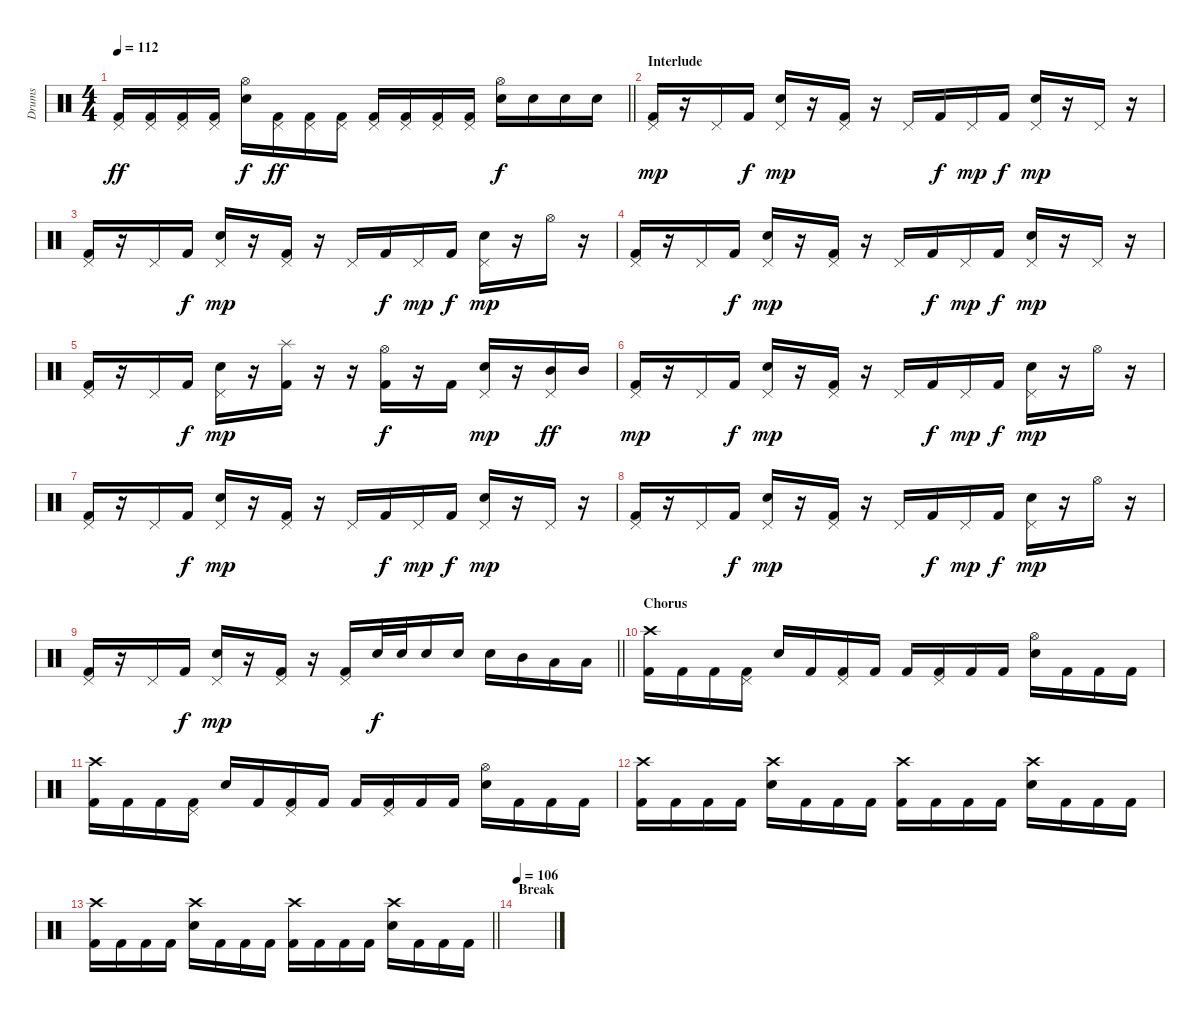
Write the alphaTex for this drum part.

\track ("Drums" "Drums") {instrument percussion}
\staff {score}
\articulation defaults
\ts (4 4)
\tempo 112
\clef neutral
\barLineRight lightlight
\ks c
("Pedal Hi-Hat (hit)" "Kick (hit) 2").16{dy ff} ("Pedal Hi-Hat (hit)" "Kick (hit) 2").16 ("Pedal Hi-Hat (hit)" "Kick (hit) 2").16 ("Pedal Hi-Hat (hit)" "Kick (hit) 2").16 ("Hi-Hat (open)" "Snare (hit) 2").16{dy f} ("Pedal Hi-Hat (hit)" "Kick (hit) 2").16{dy ff} ("Pedal Hi-Hat (hit)" "Kick (hit) 2").16 ("Pedal Hi-Hat (hit)" "Kick (hit) 2").16 ("Pedal Hi-Hat (hit)" "Kick (hit) 2").16 ("Pedal Hi-Hat (hit)" "Kick (hit) 2").16 ("Pedal Hi-Hat (hit)" "Kick (hit) 2").16 ("Pedal Hi-Hat (hit)" "Kick (hit) 2").16 ("Hi-Hat (open)" "Snare (hit) 2").16{dy f} "Snare (hit) 2".16 "Snare (hit) 2".16 "Snare (hit) 2".16 |
\section ("" "Interlude")
("Pedal Hi-Hat (hit)" "Kick (hit) 2").16{dy mp} r.16 "Pedal Hi-Hat (hit)".16 "Kick (hit) 2".16{dy f} ("Pedal Hi-Hat (hit)" "Snare (hit) 2").16{dy mp} r.16 ("Pedal Hi-Hat (hit)" "Kick (hit) 2").16 r.16 "Pedal Hi-Hat (hit)".16 "Kick (hit) 2".16{dy f} "Pedal Hi-Hat (hit)".16{dy mp} "Kick (hit) 2".16{dy f} ("Pedal Hi-Hat (hit)" "Snare (hit) 2").16{dy mp} r.16 "Pedal Hi-Hat (hit)".16 r.16 |
("Pedal Hi-Hat (hit)" "Kick (hit) 2").16 r.16 "Pedal Hi-Hat (hit)".16 "Kick (hit) 2".16{dy f} ("Pedal Hi-Hat (hit)" "Snare (hit) 2").16{dy mp} r.16 ("Pedal Hi-Hat (hit)" "Kick (hit) 2").16 r.16 "Pedal Hi-Hat (hit)".16 "Kick (hit) 2".16{dy f} "Pedal Hi-Hat (hit)".16{dy mp} "Kick (hit) 2".16{dy f} ("Pedal Hi-Hat (hit)" "Snare (hit) 2").16{dy mp} r.16 "Hi-Hat (open)".16 r.16 |
("Pedal Hi-Hat (hit)" "Kick (hit) 2").16 r.16 "Pedal Hi-Hat (hit)".16 "Kick (hit) 2".16{dy f} ("Pedal Hi-Hat (hit)" "Snare (hit) 2").16{dy mp} r.16 ("Pedal Hi-Hat (hit)" "Kick (hit) 2").16 r.16 "Pedal Hi-Hat (hit)".16 "Kick (hit) 2".16{dy f} "Pedal Hi-Hat (hit)".16{dy mp} "Kick (hit) 2".16{dy f} ("Pedal Hi-Hat (hit)" "Snare (hit) 2").16{dy mp} r.16 "Pedal Hi-Hat (hit)".16 r.16 |
("Pedal Hi-Hat (hit)" "Kick (hit) 2").16 r.16 "Pedal Hi-Hat (hit)".16 "Kick (hit) 2".16{dy f} ("Pedal Hi-Hat (hit)" "Snare (hit) 2").16{dy mp} r.16 ("Splash (hit)" "Kick (hit) 2").16 r.16 r.16 ("Hi-Hat (open)" "Kick (hit) 2").16{dy f} r.16 "Kick (hit) 2".16 ("Pedal Hi-Hat (hit)" "Snare (hit) 2").16{dy mp} r.16 ("Pedal Hi-Hat (hit)" "Mid Tom (hit)").16{dy ff} "Mid Tom (hit)".16 |
("Pedal Hi-Hat (hit)" "Kick (hit) 2").16{dy mp} r.16 "Pedal Hi-Hat (hit)".16 "Kick (hit) 2".16{dy f} ("Pedal Hi-Hat (hit)" "Snare (hit) 2").16{dy mp} r.16 ("Pedal Hi-Hat (hit)" "Kick (hit) 2").16 r.16 "Pedal Hi-Hat (hit)".16 "Kick (hit) 2".16{dy f} "Pedal Hi-Hat (hit)".16{dy mp} "Kick (hit) 2".16{dy f} ("Pedal Hi-Hat (hit)" "Snare (hit) 2").16{dy mp} r.16 "Hi-Hat (open)".16 r.16 |
("Pedal Hi-Hat (hit)" "Kick (hit) 2").16 r.16 "Pedal Hi-Hat (hit)".16 "Kick (hit) 2".16{dy f} ("Pedal Hi-Hat (hit)" "Snare (hit) 2").16{dy mp} r.16 ("Pedal Hi-Hat (hit)" "Kick (hit) 2").16 r.16 "Pedal Hi-Hat (hit)".16 "Kick (hit) 2".16{dy f} "Pedal Hi-Hat (hit)".16{dy mp} "Kick (hit) 2".16{dy f} ("Pedal Hi-Hat (hit)" "Snare (hit) 2").16{dy mp} r.16 "Pedal Hi-Hat (hit)".16 r.16 |
("Pedal Hi-Hat (hit)" "Kick (hit) 2").16 r.16 "Pedal Hi-Hat (hit)".16 "Kick (hit) 2".16{dy f} ("Pedal Hi-Hat (hit)" "Snare (hit) 2").16{dy mp} r.16 ("Pedal Hi-Hat (hit)" "Kick (hit) 2").16 r.16 "Pedal Hi-Hat (hit)".16 "Kick (hit) 2".16{dy f} "Pedal Hi-Hat (hit)".16{dy mp} "Kick (hit) 2".16{dy f} ("Pedal Hi-Hat (hit)" "Snare (hit) 2").16{dy mp} r.16 "Hi-Hat (open)".16 r.16 |
\barLineRight lightlight
("Pedal Hi-Hat (hit)" "Kick (hit) 2").16 r.16 "Pedal Hi-Hat (hit)".16 "Kick (hit) 2".16{dy f} ("Pedal Hi-Hat (hit)" "Snare (hit) 2").16{dy mp} r.16 ("Pedal Hi-Hat (hit)" "Kick (hit) 2").16 r.16 ("Pedal Hi-Hat (hit)" "Kick (hit) 2").16 "Snare (hit) 2".32{dy f} "Snare (hit) 2".32 "Snare (hit) 2".16 "Snare (hit) 2".16 "Snare (hit) 2".16 "Mid Tom (hit)".16 "Low Tom (hit)".16 "Low Tom (hit)".16 |
\section ("" "Chorus")
("Crash high (hit)" "Kick (hit) 2").16 "Kick (hit) 2".16 "Kick (hit) 2".16 ("Pedal Hi-Hat (hit)" "Kick (hit) 2").16 "Snare (hit) 2".16 "Kick (hit) 2".16 ("Pedal Hi-Hat (hit)" "Kick (hit) 2").16 "Kick (hit) 2".16 "Kick (hit) 2".16 ("Pedal Hi-Hat (hit)" "Kick (hit) 2").16 "Kick (hit) 2".16 "Kick (hit) 2".16 ("Hi-Hat (open)" "Snare (hit) 2").16 "Kick (hit) 2".16 "Kick (hit) 2".16 "Kick (hit) 2".16 |
("Crash high (hit)" "Kick (hit) 2").16 "Kick (hit) 2".16 "Kick (hit) 2".16 ("Pedal Hi-Hat (hit)" "Kick (hit) 2").16 "Snare (hit) 2".16 "Kick (hit) 2".16 ("Pedal Hi-Hat (hit)" "Kick (hit) 2").16 "Kick (hit) 2".16 "Kick (hit) 2".16 ("Pedal Hi-Hat (hit)" "Kick (hit) 2").16 "Kick (hit) 2".16 "Kick (hit) 2".16 ("Hi-Hat (open)" "Snare (hit) 2").16 "Kick (hit) 2".16 "Kick (hit) 2".16 "Kick (hit) 2".16 |
("Crash high (hit)" "Kick (hit) 2").16 "Kick (hit) 2".16 "Kick (hit) 2".16 "Kick (hit) 2".16 ("Crash high (hit)" "Snare (hit) 2").16 "Kick (hit) 2".16 "Kick (hit) 2".16 "Kick (hit) 2".16 ("Crash high (hit)" "Kick (hit) 2").16 "Kick (hit) 2".16 "Kick (hit) 2".16 "Kick (hit) 2".16 ("Crash high (hit)" "Snare (hit) 2").16 "Kick (hit) 2".16 "Kick (hit) 2".16 "Kick (hit) 2".16 |
\barLineRight lightlight
("Crash high (hit)" "Kick (hit) 2").16 "Kick (hit) 2".16 "Kick (hit) 2".16 "Kick (hit) 2".16 ("Crash high (hit)" "Snare (hit) 2").16 "Kick (hit) 2".16 "Kick (hit) 2".16 "Kick (hit) 2".16 ("Crash high (hit)" "Kick (hit) 2").16 "Kick (hit) 2".16 "Kick (hit) 2".16 "Kick (hit) 2".16 ("Crash high (hit)" "Snare (hit) 2").16 "Kick (hit) 2".16 "Kick (hit) 2".16 "Kick (hit) 2".16 |
\section ("" "Break")
\tempo 106
